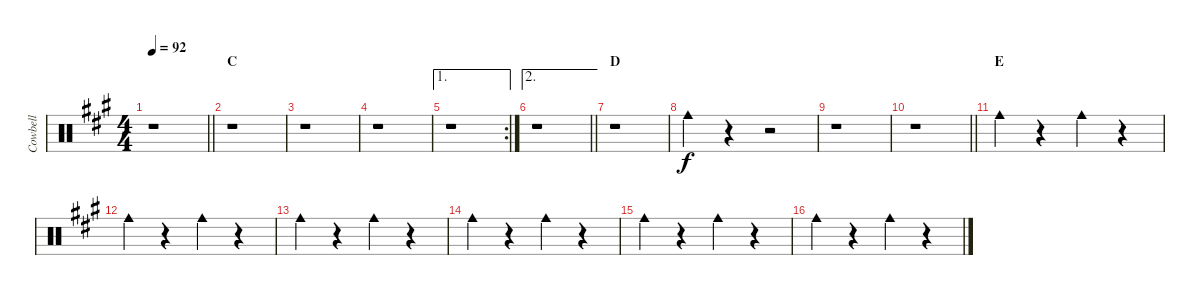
\track ("Cowbell" "Cowbell") {instrument percussion}
\staff {score}
\articulation defaults
\ts (4 4)
\tempo 92
\clef neutral
\barLineRight lightlight
\ks a
r.1{dy f} |
\section ("" "C")
r.1 |
r.1 |
r.1 |
\ae 1
\rc 2
r.1 |
\ae 2
\barLineRight lightlight
r.1 |
\section ("" "D")
r.1 |
"Cowbell medium (hit)".4 r.4 r.2 |
r.1 |
\barLineRight lightlight
r.1 |
\section ("" "E")
"Cowbell medium (hit)".4 r.4 "Cowbell medium (hit)".4 r.4 |
"Cowbell medium (hit)".4 r.4 "Cowbell medium (hit)".4 r.4 |
"Cowbell medium (hit)".4 r.4 "Cowbell medium (hit)".4 r.4 |
"Cowbell medium (hit)".4 r.4 "Cowbell medium (hit)".4 r.4 |
"Cowbell medium (hit)".4 r.4 "Cowbell medium (hit)".4 r.4 |
"Cowbell medium (hit)".4 r.4 "Cowbell medium (hit)".4 r.4
